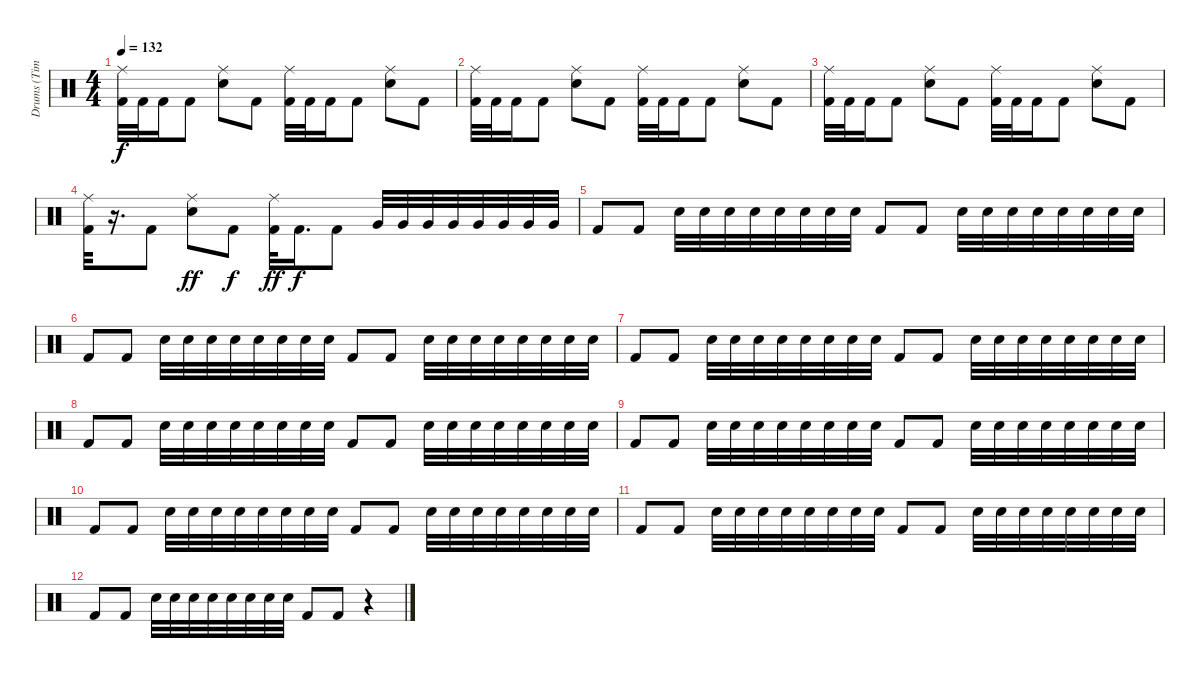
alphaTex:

\track ("Drums (Tim Alexander)" "Drums (Tim") {instrument percussion}
\staff {score}
\articulation defaults
\ts (4 4)
\tempo 132
\clef neutral
\ks c
("Ride (middle)" "Kick (hit) 2").32{dy f} "Kick (hit) 2".32 "Kick (hit) 2".16 "Kick (hit) 2".8 ("Ride (middle)" "Snare (hit) 2").8 "Kick (hit) 2".8 ("Ride (middle)" "Kick (hit) 2").32 "Kick (hit) 2".32 "Kick (hit) 2".16 "Kick (hit) 2".8 ("Ride (middle)" "Snare (hit) 2").8 "Kick (hit) 2".8 |
("Ride (middle)" "Kick (hit) 2").32 "Kick (hit) 2".32 "Kick (hit) 2".16 "Kick (hit) 2".8 ("Ride (middle)" "Snare (hit) 2").8 "Kick (hit) 2".8 ("Ride (middle)" "Kick (hit) 2").32 "Kick (hit) 2".32 "Kick (hit) 2".16 "Kick (hit) 2".8 ("Ride (middle)" "Snare (hit) 2").8 "Kick (hit) 2".8 |
("Ride (middle)" "Kick (hit) 2").32 "Kick (hit) 2".32 "Kick (hit) 2".16 "Kick (hit) 2".8 ("Ride (middle)" "Snare (hit) 2").8 "Kick (hit) 2".8 ("Ride (middle)" "Kick (hit) 2").32 "Kick (hit) 2".32 "Kick (hit) 2".16 "Kick (hit) 2".8 ("Ride (middle)" "Snare (hit) 2").8 "Kick (hit) 2".8 |
("Ride (middle)" "Kick (hit) 2").32 r.16{d} "Kick (hit) 2".8 ("Ride (middle)" "Snare (hit) 2").8{dy ff} "Kick (hit) 2".8{dy f} ("Ride (middle)" "Kick (hit) 2").32{dy ff} "Kick (hit) 2".16{d dy f} "Kick (hit) 2".8 "Very Low Tom (hit)".32 "Very Low Tom (hit)".32 "Very Low Tom (hit)".32 "Very Low Tom (hit)".32 "Very Low Tom (hit)".32 "Very Low Tom (hit)".32 "Very Low Tom (hit)".32 "Very Low Tom (hit)".32 |
"Kick (hit) 2".8 "Kick (hit) 2".8 "Snare (hit) 2".32 "Snare (hit) 2".32 "Snare (hit) 2".32 "Snare (hit) 2".32 "Snare (hit) 2".32 "Snare (hit) 2".32 "Snare (hit) 2".32 "Snare (hit) 2".32 "Kick (hit) 2".8 "Kick (hit) 2".8 "Snare (hit) 2".32 "Snare (hit) 2".32 "Snare (hit) 2".32 "Snare (hit) 2".32 "Snare (hit) 2".32 "Snare (hit) 2".32 "Snare (hit) 2".32 "Snare (hit) 2".32 |
"Kick (hit) 2".8 "Kick (hit) 2".8 "Snare (hit) 2".32 "Snare (hit) 2".32 "Snare (hit) 2".32 "Snare (hit) 2".32 "Snare (hit) 2".32 "Snare (hit) 2".32 "Snare (hit) 2".32 "Snare (hit) 2".32 "Kick (hit) 2".8 "Kick (hit) 2".8 "Snare (hit) 2".32 "Snare (hit) 2".32 "Snare (hit) 2".32 "Snare (hit) 2".32 "Snare (hit) 2".32 "Snare (hit) 2".32 "Snare (hit) 2".32 "Snare (hit) 2".32 |
"Kick (hit) 2".8 "Kick (hit) 2".8 "Snare (hit) 2".32 "Snare (hit) 2".32 "Snare (hit) 2".32 "Snare (hit) 2".32 "Snare (hit) 2".32 "Snare (hit) 2".32 "Snare (hit) 2".32 "Snare (hit) 2".32 "Kick (hit) 2".8 "Kick (hit) 2".8 "Snare (hit) 2".32 "Snare (hit) 2".32 "Snare (hit) 2".32 "Snare (hit) 2".32 "Snare (hit) 2".32 "Snare (hit) 2".32 "Snare (hit) 2".32 "Snare (hit) 2".32 |
"Kick (hit) 2".8 "Kick (hit) 2".8 "Snare (hit) 2".32 "Snare (hit) 2".32 "Snare (hit) 2".32 "Snare (hit) 2".32 "Snare (hit) 2".32 "Snare (hit) 2".32 "Snare (hit) 2".32 "Snare (hit) 2".32 "Kick (hit) 2".8 "Kick (hit) 2".8 "Snare (hit) 2".32 "Snare (hit) 2".32 "Snare (hit) 2".32 "Snare (hit) 2".32 "Snare (hit) 2".32 "Snare (hit) 2".32 "Snare (hit) 2".32 "Snare (hit) 2".32 |
"Kick (hit) 2".8 "Kick (hit) 2".8 "Snare (hit) 2".32 "Snare (hit) 2".32 "Snare (hit) 2".32 "Snare (hit) 2".32 "Snare (hit) 2".32 "Snare (hit) 2".32 "Snare (hit) 2".32 "Snare (hit) 2".32 "Kick (hit) 2".8 "Kick (hit) 2".8 "Snare (hit) 2".32 "Snare (hit) 2".32 "Snare (hit) 2".32 "Snare (hit) 2".32 "Snare (hit) 2".32 "Snare (hit) 2".32 "Snare (hit) 2".32 "Snare (hit) 2".32 |
"Kick (hit) 2".8 "Kick (hit) 2".8 "Snare (hit) 2".32 "Snare (hit) 2".32 "Snare (hit) 2".32 "Snare (hit) 2".32 "Snare (hit) 2".32 "Snare (hit) 2".32 "Snare (hit) 2".32 "Snare (hit) 2".32 "Kick (hit) 2".8 "Kick (hit) 2".8 "Snare (hit) 2".32 "Snare (hit) 2".32 "Snare (hit) 2".32 "Snare (hit) 2".32 "Snare (hit) 2".32 "Snare (hit) 2".32 "Snare (hit) 2".32 "Snare (hit) 2".32 |
"Kick (hit) 2".8 "Kick (hit) 2".8 "Snare (hit) 2".32 "Snare (hit) 2".32 "Snare (hit) 2".32 "Snare (hit) 2".32 "Snare (hit) 2".32 "Snare (hit) 2".32 "Snare (hit) 2".32 "Snare (hit) 2".32 "Kick (hit) 2".8 "Kick (hit) 2".8 "Snare (hit) 2".32 "Snare (hit) 2".32 "Snare (hit) 2".32 "Snare (hit) 2".32 "Snare (hit) 2".32 "Snare (hit) 2".32 "Snare (hit) 2".32 "Snare (hit) 2".32 |
"Kick (hit) 2".8 "Kick (hit) 2".8 "Snare (hit) 2".32 "Snare (hit) 2".32 "Snare (hit) 2".32 "Snare (hit) 2".32 "Snare (hit) 2".32 "Snare (hit) 2".32 "Snare (hit) 2".32 "Snare (hit) 2".32 "Kick (hit) 2".8 "Kick (hit) 2".8 r.4
